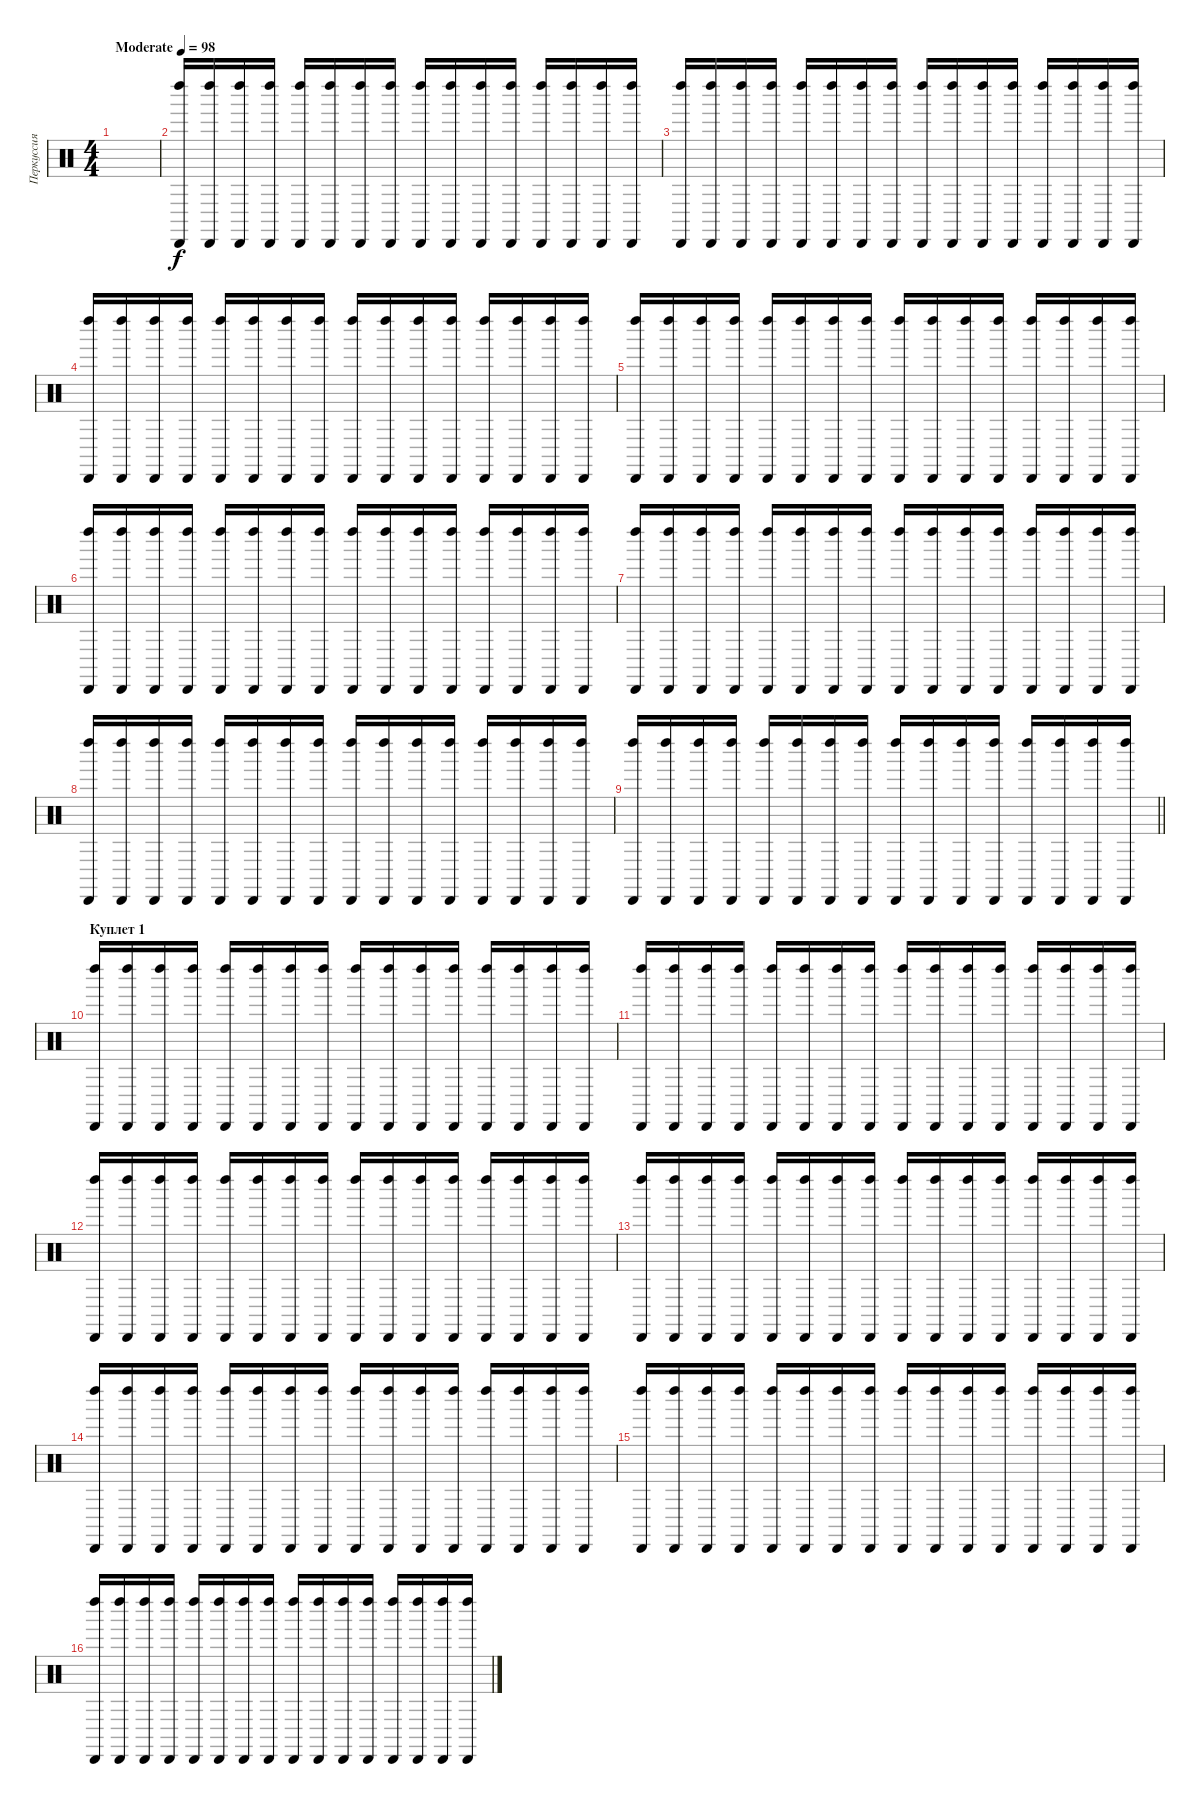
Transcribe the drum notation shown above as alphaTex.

\track ("Перкуссия" "Перкуссия") {instrument percussion}
\staff {score}
\articulation defaults
\ts (4 4)
\tempo (98 "Moderate")
\clef neutral
\ks c
|
("Cabasa (hit)" "Left Maraca (hit)").16{volume 5} ("Cabasa (hit)" "Left Maraca (hit)").16 ("Cabasa (hit)" "Left Maraca (hit)").16 ("Cabasa (hit)" "Left Maraca (hit)").16 ("Cabasa (hit)" "Left Maraca (hit)").16 ("Cabasa (hit)" "Left Maraca (hit)").16 ("Cabasa (hit)" "Left Maraca (hit)").16 ("Cabasa (hit)" "Left Maraca (hit)").16 ("Cabasa (hit)" "Left Maraca (hit)").16 ("Cabasa (hit)" "Left Maraca (hit)").16 ("Cabasa (hit)" "Left Maraca (hit)").16 ("Cabasa (hit)" "Left Maraca (hit)").16 ("Cabasa (hit)" "Left Maraca (hit)").16 ("Cabasa (hit)" "Left Maraca (hit)").16 ("Cabasa (hit)" "Left Maraca (hit)").16 ("Cabasa (hit)" "Left Maraca (hit)").16 |
("Cabasa (hit)" "Left Maraca (hit)").16 ("Cabasa (hit)" "Left Maraca (hit)").16 ("Cabasa (hit)" "Left Maraca (hit)").16 ("Cabasa (hit)" "Left Maraca (hit)").16 ("Cabasa (hit)" "Left Maraca (hit)").16 ("Cabasa (hit)" "Left Maraca (hit)").16 ("Cabasa (hit)" "Left Maraca (hit)").16 ("Cabasa (hit)" "Left Maraca (hit)").16 ("Cabasa (hit)" "Left Maraca (hit)").16 ("Cabasa (hit)" "Left Maraca (hit)").16 ("Cabasa (hit)" "Left Maraca (hit)").16 ("Cabasa (hit)" "Left Maraca (hit)").16 ("Cabasa (hit)" "Left Maraca (hit)").16 ("Cabasa (hit)" "Left Maraca (hit)").16 ("Cabasa (hit)" "Left Maraca (hit)").16 ("Cabasa (hit)" "Left Maraca (hit)").16 |
("Cabasa (hit)" "Left Maraca (hit)").16 ("Cabasa (hit)" "Left Maraca (hit)").16 ("Cabasa (hit)" "Left Maraca (hit)").16 ("Cabasa (hit)" "Left Maraca (hit)").16 ("Cabasa (hit)" "Left Maraca (hit)").16 ("Cabasa (hit)" "Left Maraca (hit)").16 ("Cabasa (hit)" "Left Maraca (hit)").16 ("Cabasa (hit)" "Left Maraca (hit)").16 ("Cabasa (hit)" "Left Maraca (hit)").16 ("Cabasa (hit)" "Left Maraca (hit)").16 ("Cabasa (hit)" "Left Maraca (hit)").16 ("Cabasa (hit)" "Left Maraca (hit)").16 ("Cabasa (hit)" "Left Maraca (hit)").16 ("Cabasa (hit)" "Left Maraca (hit)").16 ("Cabasa (hit)" "Left Maraca (hit)").16 ("Cabasa (hit)" "Left Maraca (hit)").16 |
("Cabasa (hit)" "Left Maraca (hit)").16 ("Cabasa (hit)" "Left Maraca (hit)").16 ("Cabasa (hit)" "Left Maraca (hit)").16 ("Cabasa (hit)" "Left Maraca (hit)").16 ("Cabasa (hit)" "Left Maraca (hit)").16 ("Cabasa (hit)" "Left Maraca (hit)").16 ("Cabasa (hit)" "Left Maraca (hit)").16 ("Cabasa (hit)" "Left Maraca (hit)").16 ("Cabasa (hit)" "Left Maraca (hit)").16 ("Cabasa (hit)" "Left Maraca (hit)").16 ("Cabasa (hit)" "Left Maraca (hit)").16 ("Cabasa (hit)" "Left Maraca (hit)").16 ("Cabasa (hit)" "Left Maraca (hit)").16 ("Cabasa (hit)" "Left Maraca (hit)").16 ("Cabasa (hit)" "Left Maraca (hit)").16 ("Cabasa (hit)" "Left Maraca (hit)").16 |
("Cabasa (hit)" "Left Maraca (hit)").16 ("Cabasa (hit)" "Left Maraca (hit)").16 ("Cabasa (hit)" "Left Maraca (hit)").16 ("Cabasa (hit)" "Left Maraca (hit)").16 ("Cabasa (hit)" "Left Maraca (hit)").16 ("Cabasa (hit)" "Left Maraca (hit)").16 ("Cabasa (hit)" "Left Maraca (hit)").16 ("Cabasa (hit)" "Left Maraca (hit)").16 ("Cabasa (hit)" "Left Maraca (hit)").16 ("Cabasa (hit)" "Left Maraca (hit)").16 ("Cabasa (hit)" "Left Maraca (hit)").16 ("Cabasa (hit)" "Left Maraca (hit)").16 ("Cabasa (hit)" "Left Maraca (hit)").16 ("Cabasa (hit)" "Left Maraca (hit)").16 ("Cabasa (hit)" "Left Maraca (hit)").16 ("Cabasa (hit)" "Left Maraca (hit)").16 |
("Cabasa (hit)" "Left Maraca (hit)").16 ("Cabasa (hit)" "Left Maraca (hit)").16 ("Cabasa (hit)" "Left Maraca (hit)").16 ("Cabasa (hit)" "Left Maraca (hit)").16 ("Cabasa (hit)" "Left Maraca (hit)").16 ("Cabasa (hit)" "Left Maraca (hit)").16 ("Cabasa (hit)" "Left Maraca (hit)").16 ("Cabasa (hit)" "Left Maraca (hit)").16 ("Cabasa (hit)" "Left Maraca (hit)").16 ("Cabasa (hit)" "Left Maraca (hit)").16 ("Cabasa (hit)" "Left Maraca (hit)").16 ("Cabasa (hit)" "Left Maraca (hit)").16 ("Cabasa (hit)" "Left Maraca (hit)").16 ("Cabasa (hit)" "Left Maraca (hit)").16 ("Cabasa (hit)" "Left Maraca (hit)").16 ("Cabasa (hit)" "Left Maraca (hit)").16 |
("Cabasa (hit)" "Left Maraca (hit)").16 ("Cabasa (hit)" "Left Maraca (hit)").16 ("Cabasa (hit)" "Left Maraca (hit)").16 ("Cabasa (hit)" "Left Maraca (hit)").16 ("Cabasa (hit)" "Left Maraca (hit)").16 ("Cabasa (hit)" "Left Maraca (hit)").16 ("Cabasa (hit)" "Left Maraca (hit)").16 ("Cabasa (hit)" "Left Maraca (hit)").16 ("Cabasa (hit)" "Left Maraca (hit)").16 ("Cabasa (hit)" "Left Maraca (hit)").16 ("Cabasa (hit)" "Left Maraca (hit)").16 ("Cabasa (hit)" "Left Maraca (hit)").16 ("Cabasa (hit)" "Left Maraca (hit)").16 ("Cabasa (hit)" "Left Maraca (hit)").16 ("Cabasa (hit)" "Left Maraca (hit)").16 ("Cabasa (hit)" "Left Maraca (hit)").16 |
\barLineRight lightlight
("Cabasa (hit)" "Left Maraca (hit)").16 ("Cabasa (hit)" "Left Maraca (hit)").16 ("Cabasa (hit)" "Left Maraca (hit)").16 ("Cabasa (hit)" "Left Maraca (hit)").16 ("Cabasa (hit)" "Left Maraca (hit)").16 ("Cabasa (hit)" "Left Maraca (hit)").16 ("Cabasa (hit)" "Left Maraca (hit)").16 ("Cabasa (hit)" "Left Maraca (hit)").16 ("Cabasa (hit)" "Left Maraca (hit)").16 ("Cabasa (hit)" "Left Maraca (hit)").16 ("Cabasa (hit)" "Left Maraca (hit)").16 ("Cabasa (hit)" "Left Maraca (hit)").16 ("Cabasa (hit)" "Left Maraca (hit)").16 ("Cabasa (hit)" "Left Maraca (hit)").16 ("Cabasa (hit)" "Left Maraca (hit)").16 ("Cabasa (hit)" "Left Maraca (hit)").16 |
\section ("" "Куплет 1")
("Cabasa (hit)" "Left Maraca (hit)").16 ("Cabasa (hit)" "Left Maraca (hit)").16 ("Cabasa (hit)" "Left Maraca (hit)").16 ("Cabasa (hit)" "Left Maraca (hit)").16 ("Cabasa (hit)" "Left Maraca (hit)").16 ("Cabasa (hit)" "Left Maraca (hit)").16 ("Cabasa (hit)" "Left Maraca (hit)").16 ("Cabasa (hit)" "Left Maraca (hit)").16 ("Cabasa (hit)" "Left Maraca (hit)").16 ("Cabasa (hit)" "Left Maraca (hit)").16 ("Cabasa (hit)" "Left Maraca (hit)").16 ("Cabasa (hit)" "Left Maraca (hit)").16 ("Cabasa (hit)" "Left Maraca (hit)").16 ("Cabasa (hit)" "Left Maraca (hit)").16 ("Cabasa (hit)" "Left Maraca (hit)").16 ("Cabasa (hit)" "Left Maraca (hit)").16 |
("Cabasa (hit)" "Left Maraca (hit)").16 ("Cabasa (hit)" "Left Maraca (hit)").16 ("Cabasa (hit)" "Left Maraca (hit)").16 ("Cabasa (hit)" "Left Maraca (hit)").16 ("Cabasa (hit)" "Left Maraca (hit)").16 ("Cabasa (hit)" "Left Maraca (hit)").16 ("Cabasa (hit)" "Left Maraca (hit)").16 ("Cabasa (hit)" "Left Maraca (hit)").16 ("Cabasa (hit)" "Left Maraca (hit)").16 ("Cabasa (hit)" "Left Maraca (hit)").16 ("Cabasa (hit)" "Left Maraca (hit)").16 ("Cabasa (hit)" "Left Maraca (hit)").16 ("Cabasa (hit)" "Left Maraca (hit)").16 ("Cabasa (hit)" "Left Maraca (hit)").16 ("Cabasa (hit)" "Left Maraca (hit)").16 ("Cabasa (hit)" "Left Maraca (hit)").16 |
("Cabasa (hit)" "Left Maraca (hit)").16 ("Cabasa (hit)" "Left Maraca (hit)").16 ("Cabasa (hit)" "Left Maraca (hit)").16 ("Cabasa (hit)" "Left Maraca (hit)").16 ("Cabasa (hit)" "Left Maraca (hit)").16 ("Cabasa (hit)" "Left Maraca (hit)").16 ("Cabasa (hit)" "Left Maraca (hit)").16 ("Cabasa (hit)" "Left Maraca (hit)").16 ("Cabasa (hit)" "Left Maraca (hit)").16 ("Cabasa (hit)" "Left Maraca (hit)").16 ("Cabasa (hit)" "Left Maraca (hit)").16 ("Cabasa (hit)" "Left Maraca (hit)").16 ("Cabasa (hit)" "Left Maraca (hit)").16 ("Cabasa (hit)" "Left Maraca (hit)").16 ("Cabasa (hit)" "Left Maraca (hit)").16 ("Cabasa (hit)" "Left Maraca (hit)").16 |
("Cabasa (hit)" "Left Maraca (hit)").16 ("Cabasa (hit)" "Left Maraca (hit)").16 ("Cabasa (hit)" "Left Maraca (hit)").16 ("Cabasa (hit)" "Left Maraca (hit)").16 ("Cabasa (hit)" "Left Maraca (hit)").16 ("Cabasa (hit)" "Left Maraca (hit)").16 ("Cabasa (hit)" "Left Maraca (hit)").16 ("Cabasa (hit)" "Left Maraca (hit)").16 ("Cabasa (hit)" "Left Maraca (hit)").16 ("Cabasa (hit)" "Left Maraca (hit)").16 ("Cabasa (hit)" "Left Maraca (hit)").16 ("Cabasa (hit)" "Left Maraca (hit)").16 ("Cabasa (hit)" "Left Maraca (hit)").16 ("Cabasa (hit)" "Left Maraca (hit)").16 ("Cabasa (hit)" "Left Maraca (hit)").16 ("Cabasa (hit)" "Left Maraca (hit)").16 |
("Cabasa (hit)" "Left Maraca (hit)").16 ("Cabasa (hit)" "Left Maraca (hit)").16 ("Cabasa (hit)" "Left Maraca (hit)").16 ("Cabasa (hit)" "Left Maraca (hit)").16 ("Cabasa (hit)" "Left Maraca (hit)").16 ("Cabasa (hit)" "Left Maraca (hit)").16 ("Cabasa (hit)" "Left Maraca (hit)").16 ("Cabasa (hit)" "Left Maraca (hit)").16 ("Cabasa (hit)" "Left Maraca (hit)").16 ("Cabasa (hit)" "Left Maraca (hit)").16 ("Cabasa (hit)" "Left Maraca (hit)").16 ("Cabasa (hit)" "Left Maraca (hit)").16 ("Cabasa (hit)" "Left Maraca (hit)").16 ("Cabasa (hit)" "Left Maraca (hit)").16 ("Cabasa (hit)" "Left Maraca (hit)").16 ("Cabasa (hit)" "Left Maraca (hit)").16 |
("Cabasa (hit)" "Left Maraca (hit)").16 ("Cabasa (hit)" "Left Maraca (hit)").16 ("Cabasa (hit)" "Left Maraca (hit)").16 ("Cabasa (hit)" "Left Maraca (hit)").16 ("Cabasa (hit)" "Left Maraca (hit)").16 ("Cabasa (hit)" "Left Maraca (hit)").16 ("Cabasa (hit)" "Left Maraca (hit)").16 ("Cabasa (hit)" "Left Maraca (hit)").16 ("Cabasa (hit)" "Left Maraca (hit)").16 ("Cabasa (hit)" "Left Maraca (hit)").16 ("Cabasa (hit)" "Left Maraca (hit)").16 ("Cabasa (hit)" "Left Maraca (hit)").16 ("Cabasa (hit)" "Left Maraca (hit)").16 ("Cabasa (hit)" "Left Maraca (hit)").16 ("Cabasa (hit)" "Left Maraca (hit)").16 ("Cabasa (hit)" "Left Maraca (hit)").16 |
("Cabasa (hit)" "Left Maraca (hit)").16 ("Cabasa (hit)" "Left Maraca (hit)").16 ("Cabasa (hit)" "Left Maraca (hit)").16 ("Cabasa (hit)" "Left Maraca (hit)").16 ("Cabasa (hit)" "Left Maraca (hit)").16 ("Cabasa (hit)" "Left Maraca (hit)").16 ("Cabasa (hit)" "Left Maraca (hit)").16 ("Cabasa (hit)" "Left Maraca (hit)").16 ("Cabasa (hit)" "Left Maraca (hit)").16 ("Cabasa (hit)" "Left Maraca (hit)").16 ("Cabasa (hit)" "Left Maraca (hit)").16 ("Cabasa (hit)" "Left Maraca (hit)").16 ("Cabasa (hit)" "Left Maraca (hit)").16 ("Cabasa (hit)" "Left Maraca (hit)").16 ("Cabasa (hit)" "Left Maraca (hit)").16 ("Cabasa (hit)" "Left Maraca (hit)").16
